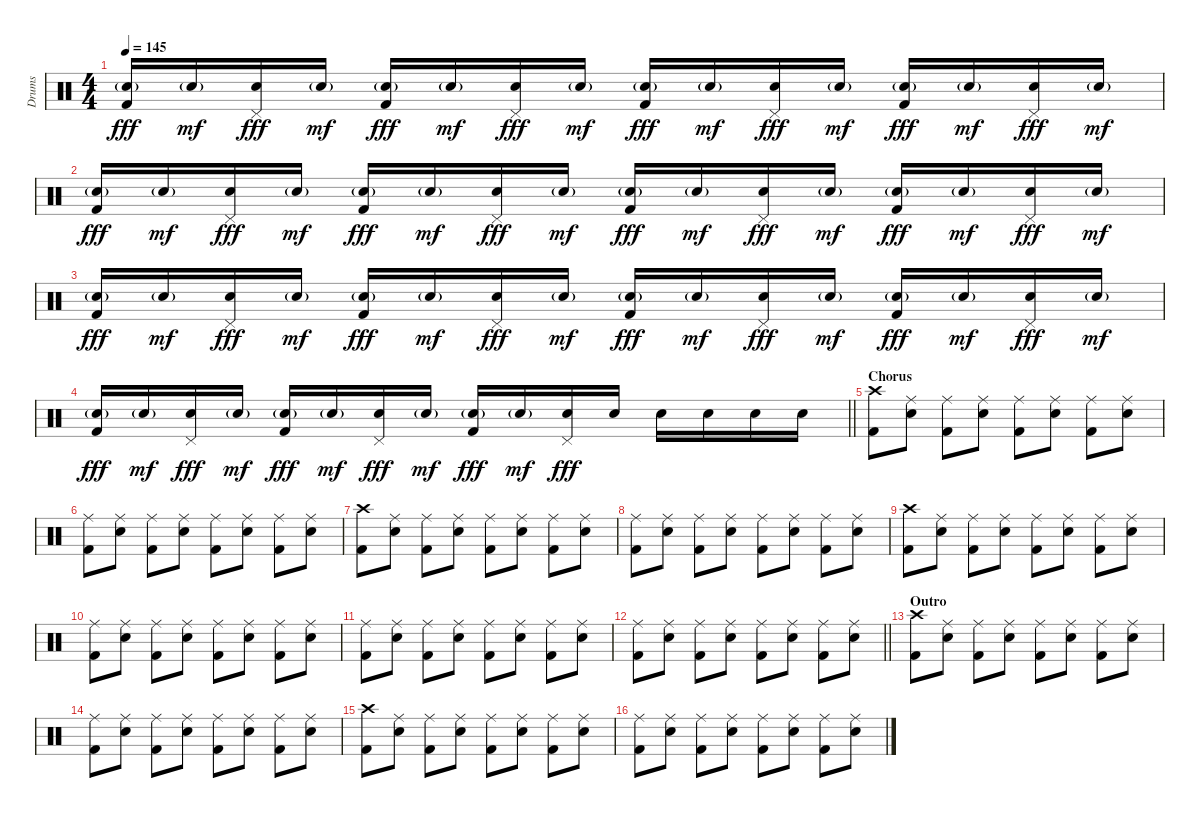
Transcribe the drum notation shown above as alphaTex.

\track ("Drums" "Drums") {instrument percussion}
\staff {score}
\articulation defaults
\ts (4 4)
\tempo 145
\clef neutral
\ks c
("Snare (hit) 2"{g} "Kick (hit) 2").16{dy fff} "Snare (hit) 2"{g}.16{dy mf} ("Pedal Hi-Hat (hit)" "Snare (hit) 2").16{dy fff} "Snare (hit) 2"{g}.16{dy mf} ("Snare (hit) 2"{g} "Kick (hit) 2").16{dy fff} "Snare (hit) 2"{g}.16{dy mf} ("Pedal Hi-Hat (hit)" "Snare (hit) 2").16{dy fff} "Snare (hit) 2"{g}.16{dy mf} ("Snare (hit) 2"{g} "Kick (hit) 2").16{dy fff} "Snare (hit) 2"{g}.16{dy mf} ("Pedal Hi-Hat (hit)" "Snare (hit) 2").16{dy fff} "Snare (hit) 2"{g}.16{dy mf} ("Snare (hit) 2"{g} "Kick (hit) 2").16{dy fff} "Snare (hit) 2"{g}.16{dy mf} ("Pedal Hi-Hat (hit)" "Snare (hit) 2").16{dy fff} "Snare (hit) 2"{g}.16{dy mf} |
("Snare (hit) 2"{g} "Kick (hit) 2").16{dy fff} "Snare (hit) 2"{g}.16{dy mf} ("Pedal Hi-Hat (hit)" "Snare (hit) 2").16{dy fff} "Snare (hit) 2"{g}.16{dy mf} ("Snare (hit) 2"{g} "Kick (hit) 2").16{dy fff} "Snare (hit) 2"{g}.16{dy mf} ("Pedal Hi-Hat (hit)" "Snare (hit) 2").16{dy fff} "Snare (hit) 2"{g}.16{dy mf} ("Snare (hit) 2"{g} "Kick (hit) 2").16{dy fff} "Snare (hit) 2"{g}.16{dy mf} ("Pedal Hi-Hat (hit)" "Snare (hit) 2").16{dy fff} "Snare (hit) 2"{g}.16{dy mf} ("Snare (hit) 2"{g} "Kick (hit) 2").16{dy fff} "Snare (hit) 2"{g}.16{dy mf} ("Pedal Hi-Hat (hit)" "Snare (hit) 2").16{dy fff} "Snare (hit) 2"{g}.16{dy mf} |
("Snare (hit) 2"{g} "Kick (hit) 2").16{dy fff} "Snare (hit) 2"{g}.16{dy mf} ("Pedal Hi-Hat (hit)" "Snare (hit) 2").16{dy fff} "Snare (hit) 2"{g}.16{dy mf} ("Snare (hit) 2"{g} "Kick (hit) 2").16{dy fff} "Snare (hit) 2"{g}.16{dy mf} ("Pedal Hi-Hat (hit)" "Snare (hit) 2").16{dy fff} "Snare (hit) 2"{g}.16{dy mf} ("Snare (hit) 2"{g} "Kick (hit) 2").16{dy fff} "Snare (hit) 2"{g}.16{dy mf} ("Pedal Hi-Hat (hit)" "Snare (hit) 2").16{dy fff} "Snare (hit) 2"{g}.16{dy mf} ("Snare (hit) 2"{g} "Kick (hit) 2").16{dy fff} "Snare (hit) 2"{g}.16{dy mf} ("Pedal Hi-Hat (hit)" "Snare (hit) 2").16{dy fff} "Snare (hit) 2"{g}.16{dy mf} |
\barLineRight lightlight
("Snare (hit) 2"{g} "Kick (hit) 2").16{dy fff} "Snare (hit) 2"{g}.16{dy mf} ("Pedal Hi-Hat (hit)" "Snare (hit) 2").16{dy fff} "Snare (hit) 2"{g}.16{dy mf} ("Snare (hit) 2"{g} "Kick (hit) 2").16{dy fff} "Snare (hit) 2"{g}.16{dy mf} ("Pedal Hi-Hat (hit)" "Snare (hit) 2").16{dy fff} "Snare (hit) 2"{g}.16{dy mf} ("Snare (hit) 2"{g} "Kick (hit) 2").16{dy fff} "Snare (hit) 2"{g}.16{dy mf} ("Pedal Hi-Hat (hit)" "Snare (hit) 2").16{dy fff} "Snare (hit) 2".16 "Snare (hit) 2".16 "Snare (hit) 2".16 "Snare (hit) 2".16 "Snare (hit) 2".16 |
\section ("" "Chorus")
("Crash high (hit)" "Kick (hit) 2").8 ("Ride (middle)" "Snare (hit) 2").8 ("Ride (middle)" "Kick (hit) 2").8 ("Ride (middle)" "Snare (hit) 2").8 ("Ride (middle)" "Kick (hit) 2").8 ("Ride (middle)" "Snare (hit) 2").8 ("Ride (middle)" "Kick (hit) 2").8 ("Ride (middle)" "Snare (hit) 2").8 |
("Ride (middle)" "Kick (hit) 2").8 ("Ride (middle)" "Snare (hit) 2").8 ("Ride (middle)" "Kick (hit) 2").8 ("Ride (middle)" "Snare (hit) 2").8 ("Ride (middle)" "Kick (hit) 2").8 ("Ride (middle)" "Snare (hit) 2").8 ("Ride (middle)" "Kick (hit) 2").8 ("Ride (middle)" "Snare (hit) 2").8 |
("Crash high (hit)" "Kick (hit) 2").8 ("Ride (middle)" "Snare (hit) 2").8 ("Ride (middle)" "Kick (hit) 2").8 ("Ride (middle)" "Snare (hit) 2").8 ("Ride (middle)" "Kick (hit) 2").8 ("Ride (middle)" "Snare (hit) 2").8 ("Ride (middle)" "Kick (hit) 2").8 ("Ride (middle)" "Snare (hit) 2").8 |
("Ride (middle)" "Kick (hit) 2").8 ("Ride (middle)" "Snare (hit) 2").8 ("Ride (middle)" "Kick (hit) 2").8 ("Ride (middle)" "Snare (hit) 2").8 ("Ride (middle)" "Kick (hit) 2").8 ("Ride (middle)" "Snare (hit) 2").8 ("Ride (middle)" "Kick (hit) 2").8 ("Ride (middle)" "Snare (hit) 2").8 |
("Crash high (hit)" "Kick (hit) 2").8 ("Ride (middle)" "Snare (hit) 2").8 ("Ride (middle)" "Kick (hit) 2").8 ("Ride (middle)" "Snare (hit) 2").8 ("Ride (middle)" "Kick (hit) 2").8 ("Ride (middle)" "Snare (hit) 2").8 ("Ride (middle)" "Kick (hit) 2").8 ("Ride (middle)" "Snare (hit) 2").8 |
("Ride (middle)" "Kick (hit) 2").8 ("Ride (middle)" "Snare (hit) 2").8 ("Ride (middle)" "Kick (hit) 2").8 ("Ride (middle)" "Snare (hit) 2").8 ("Ride (middle)" "Kick (hit) 2").8 ("Ride (middle)" "Snare (hit) 2").8 ("Ride (middle)" "Kick (hit) 2").8 ("Ride (middle)" "Snare (hit) 2").8 |
("Ride (middle)" "Kick (hit) 2").8 ("Ride (middle)" "Snare (hit) 2").8 ("Ride (middle)" "Kick (hit) 2").8 ("Ride (middle)" "Snare (hit) 2").8 ("Ride (middle)" "Kick (hit) 2").8 ("Ride (middle)" "Snare (hit) 2").8 ("Ride (middle)" "Kick (hit) 2").8 ("Ride (middle)" "Snare (hit) 2").8 |
\barLineRight lightlight
("Ride (middle)" "Kick (hit) 2").8 ("Ride (middle)" "Snare (hit) 2").8 ("Ride (middle)" "Kick (hit) 2").8 ("Ride (middle)" "Snare (hit) 2").8 ("Ride (middle)" "Kick (hit) 2").8 ("Ride (middle)" "Snare (hit) 2").8 ("Ride (middle)" "Kick (hit) 2").8 ("Ride (middle)" "Snare (hit) 2").8 |
\section ("" "Outro")
("Crash high (hit)" "Kick (hit) 2").8 ("Ride (middle)" "Snare (hit) 2").8 ("Ride (middle)" "Kick (hit) 2").8 ("Ride (middle)" "Snare (hit) 2").8 ("Ride (middle)" "Kick (hit) 2").8 ("Ride (middle)" "Snare (hit) 2").8 ("Ride (middle)" "Kick (hit) 2").8 ("Ride (middle)" "Snare (hit) 2").8 |
("Ride (middle)" "Kick (hit) 2").8 ("Ride (middle)" "Snare (hit) 2").8 ("Ride (middle)" "Kick (hit) 2").8 ("Ride (middle)" "Snare (hit) 2").8 ("Ride (middle)" "Kick (hit) 2").8 ("Ride (middle)" "Snare (hit) 2").8 ("Ride (middle)" "Kick (hit) 2").8 ("Ride (middle)" "Snare (hit) 2").8 |
("Crash high (hit)" "Kick (hit) 2").8 ("Ride (middle)" "Snare (hit) 2").8 ("Ride (middle)" "Kick (hit) 2").8 ("Ride (middle)" "Snare (hit) 2").8 ("Ride (middle)" "Kick (hit) 2").8 ("Ride (middle)" "Snare (hit) 2").8 ("Ride (middle)" "Kick (hit) 2").8 ("Ride (middle)" "Snare (hit) 2").8 |
("Ride (middle)" "Kick (hit) 2").8 ("Ride (middle)" "Snare (hit) 2").8 ("Ride (middle)" "Kick (hit) 2").8 ("Ride (middle)" "Snare (hit) 2").8 ("Ride (middle)" "Kick (hit) 2").8 ("Ride (middle)" "Snare (hit) 2").8 ("Ride (middle)" "Kick (hit) 2").8 ("Ride (middle)" "Snare (hit) 2").8
